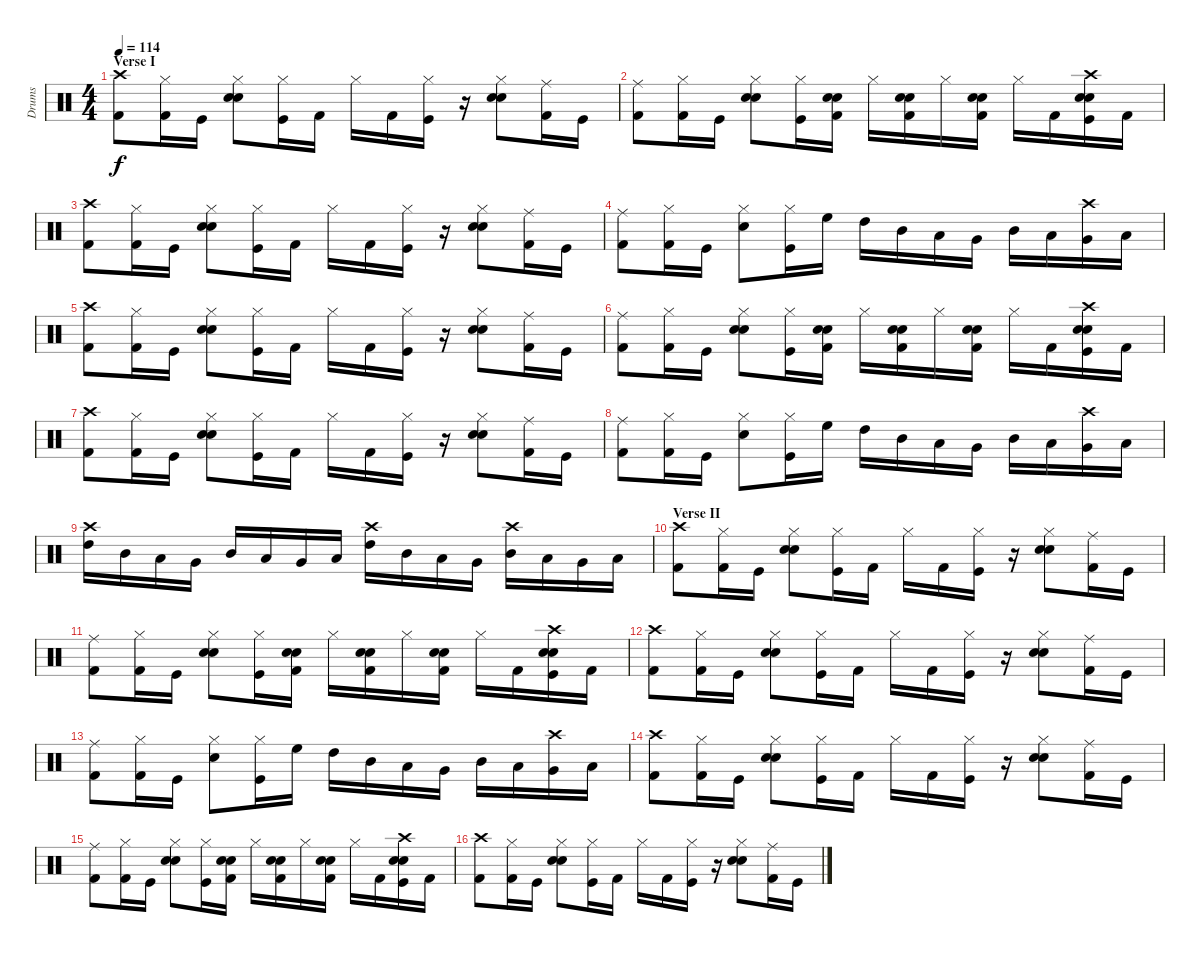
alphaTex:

\track ("Drums" "Drums") {instrument percussion}
\staff {score}
\articulation defaults
\ts (4 4)
\section ("" "Verse I")
\tempo 114
\clef neutral
\ks c
("Crash high (hit)" "Kick (hit) 2").8{dy f} ("Hi-Hat (closed)" "Kick (hit) 2").16 "Kick (hit)".16 ("Hi-Hat (closed)" "Electric Snare (hit)" "Snare (hit) 2").8 ("Hi-Hat (closed)" "Kick (hit)").16 "Kick (hit) 2".16 "Hi-Hat (closed)".16 "Kick (hit) 2".16 ("Hi-Hat (closed)" "Kick (hit)").16 r.16 ("Hi-Hat (closed)" "Electric Snare (hit)" "Snare (hit) 2").8 ("Ride (middle)" "Kick (hit) 2").16 "Kick (hit)".16 |
("Ride (middle)" "Kick (hit) 2").8 ("Hi-Hat (closed)" "Kick (hit) 2").16 "Kick (hit)".16 ("Hi-Hat (closed)" "Electric Snare (hit)" "Snare (hit) 2").8 ("Hi-Hat (closed)" "Kick (hit)").16 ("Electric Snare (hit)" "Snare (hit) 2" "Kick (hit) 2").16 "Hi-Hat (closed)".16 ("Electric Snare (hit)" "Snare (hit) 2" "Kick (hit) 2").16 "Hi-Hat (closed)".16 ("Electric Snare (hit)" "Snare (hit) 2" "Kick (hit) 2").16 "Hi-Hat (closed)".16 "Kick (hit) 2".16 ("Crash high (hit)" "Electric Snare (hit)" "Snare (hit) 2" "Kick (hit)").16 "Kick (hit) 2".16 |
("Crash high (hit)" "Kick (hit) 2").8 ("Hi-Hat (closed)" "Kick (hit) 2").16 "Kick (hit)".16 ("Hi-Hat (closed)" "Electric Snare (hit)" "Snare (hit) 2").8 ("Hi-Hat (closed)" "Kick (hit)").16 "Kick (hit) 2".16 "Hi-Hat (closed)".16 "Kick (hit) 2".16 ("Hi-Hat (closed)" "Kick (hit)").16 r.16 ("Hi-Hat (closed)" "Electric Snare (hit)" "Snare (hit) 2").8 ("Ride (middle)" "Kick (hit) 2").16 "Kick (hit)".16 |
("Ride (middle)" "Kick (hit) 2").8 ("Hi-Hat (closed)" "Kick (hit) 2").16 "Kick (hit)".16 ("Hi-Hat (closed)" "Snare (hit) 2").8 ("Hi-Hat (closed)" "Kick (hit)").16 "High Floor Tom (hit)".16 "High Tom (hit)".16 "Mid Tom (hit)".16 "Low Tom (hit)".16 "Very Low Tom (hit)".16 "Mid Tom (hit)".16 "Low Tom (hit)".16 ("Crash high (hit)" "Very Low Tom (hit)").16 "Low Floor Tom (hit)".16 |
("Crash high (hit)" "Kick (hit) 2").8 ("Hi-Hat (closed)" "Kick (hit) 2").16 "Kick (hit)".16 ("Hi-Hat (closed)" "Electric Snare (hit)" "Snare (hit) 2").8 ("Hi-Hat (closed)" "Kick (hit)").16 "Kick (hit) 2".16 "Hi-Hat (closed)".16 "Kick (hit) 2".16 ("Hi-Hat (closed)" "Kick (hit)").16 r.16 ("Hi-Hat (closed)" "Electric Snare (hit)" "Snare (hit) 2").8 ("Ride (middle)" "Kick (hit) 2").16 "Kick (hit)".16 |
("Ride (middle)" "Kick (hit) 2").8 ("Hi-Hat (closed)" "Kick (hit) 2").16 "Kick (hit)".16 ("Hi-Hat (closed)" "Electric Snare (hit)" "Snare (hit) 2").8 ("Hi-Hat (closed)" "Kick (hit)").16 ("Electric Snare (hit)" "Snare (hit) 2" "Kick (hit) 2").16 "Hi-Hat (closed)".16 ("Electric Snare (hit)" "Snare (hit) 2" "Kick (hit) 2").16 "Hi-Hat (closed)".16 ("Electric Snare (hit)" "Snare (hit) 2" "Kick (hit) 2").16 "Hi-Hat (closed)".16 "Kick (hit) 2".16 ("Crash high (hit)" "Electric Snare (hit)" "Snare (hit) 2" "Kick (hit)").16 "Kick (hit) 2".16 |
("Crash high (hit)" "Kick (hit) 2").8 ("Hi-Hat (closed)" "Kick (hit) 2").16 "Kick (hit)".16 ("Hi-Hat (closed)" "Electric Snare (hit)" "Snare (hit) 2").8 ("Hi-Hat (closed)" "Kick (hit)").16 "Kick (hit) 2".16 "Hi-Hat (closed)".16 "Kick (hit) 2".16 ("Hi-Hat (closed)" "Kick (hit)").16 r.16 ("Hi-Hat (closed)" "Electric Snare (hit)" "Snare (hit) 2").8 ("Ride (middle)" "Kick (hit) 2").16 "Kick (hit)".16 |
("Ride (middle)" "Kick (hit) 2").8 ("Hi-Hat (closed)" "Kick (hit) 2").16 "Kick (hit)".16 ("Hi-Hat (closed)" "Snare (hit) 2").8 ("Hi-Hat (closed)" "Kick (hit)").16 "High Floor Tom (hit)".16 "High Tom (hit)".16 "Mid Tom (hit)".16 "Low Tom (hit)".16 "Very Low Tom (hit)".16 "Mid Tom (hit)".16 "Low Tom (hit)".16 ("Crash high (hit)" "Very Low Tom (hit)").16 "Low Floor Tom (hit)".16 |
("Crash high (hit)" "High Tom (hit)").16 "Mid Tom (hit)".16 "Low Tom (hit)".16 "Very Low Tom (hit)".16 "Mid Tom (hit)".16 "Low Tom (hit)".16 "Very Low Tom (hit)".16 "Low Floor Tom (hit)".16 ("Crash high (hit)" "High Tom (hit)").16 "Mid Tom (hit)".16 "Low Tom (hit)".16 "Very Low Tom (hit)".16 ("Crash high (hit)" "Mid Tom (hit)").16 "Low Tom (hit)".16 "Very Low Tom (hit)".16 "Low Floor Tom (hit)".16 |
\section ("" "Verse II")
("Crash high (hit)" "Kick (hit) 2").8 ("Hi-Hat (closed)" "Kick (hit) 2").16 "Kick (hit)".16 ("Hi-Hat (closed)" "Electric Snare (hit)" "Snare (hit) 2").8 ("Hi-Hat (closed)" "Kick (hit)").16 "Kick (hit) 2".16 "Hi-Hat (closed)".16 "Kick (hit) 2".16 ("Hi-Hat (closed)" "Kick (hit)").16 r.16 ("Hi-Hat (closed)" "Electric Snare (hit)" "Snare (hit) 2").8 ("Ride (middle)" "Kick (hit) 2").16 "Kick (hit)".16 |
("Ride (middle)" "Kick (hit) 2").8 ("Hi-Hat (closed)" "Kick (hit) 2").16 "Kick (hit)".16 ("Hi-Hat (closed)" "Electric Snare (hit)" "Snare (hit) 2").8 ("Hi-Hat (closed)" "Kick (hit)").16 ("Electric Snare (hit)" "Snare (hit) 2" "Kick (hit) 2").16 "Hi-Hat (closed)".16 ("Electric Snare (hit)" "Snare (hit) 2" "Kick (hit) 2").16 "Hi-Hat (closed)".16 ("Electric Snare (hit)" "Snare (hit) 2" "Kick (hit) 2").16 "Hi-Hat (closed)".16 "Kick (hit) 2".16 ("Crash high (hit)" "Electric Snare (hit)" "Snare (hit) 2" "Kick (hit)").16 "Kick (hit) 2".16 |
("Crash high (hit)" "Kick (hit) 2").8 ("Hi-Hat (closed)" "Kick (hit) 2").16 "Kick (hit)".16 ("Hi-Hat (closed)" "Electric Snare (hit)" "Snare (hit) 2").8 ("Hi-Hat (closed)" "Kick (hit)").16 "Kick (hit) 2".16 "Hi-Hat (closed)".16 "Kick (hit) 2".16 ("Hi-Hat (closed)" "Kick (hit)").16 r.16 ("Hi-Hat (closed)" "Electric Snare (hit)" "Snare (hit) 2").8 ("Ride (middle)" "Kick (hit) 2").16 "Kick (hit)".16 |
("Ride (middle)" "Kick (hit) 2").8 ("Hi-Hat (closed)" "Kick (hit) 2").16 "Kick (hit)".16 ("Hi-Hat (closed)" "Snare (hit) 2").8 ("Hi-Hat (closed)" "Kick (hit)").16 "High Floor Tom (hit)".16 "High Tom (hit)".16 "Mid Tom (hit)".16 "Low Tom (hit)".16 "Very Low Tom (hit)".16 "Mid Tom (hit)".16 "Low Tom (hit)".16 ("Crash high (hit)" "Very Low Tom (hit)").16 "Low Floor Tom (hit)".16 |
("Crash high (hit)" "Kick (hit) 2").8 ("Hi-Hat (closed)" "Kick (hit) 2").16 "Kick (hit)".16 ("Hi-Hat (closed)" "Electric Snare (hit)" "Snare (hit) 2").8 ("Hi-Hat (closed)" "Kick (hit)").16 "Kick (hit) 2".16 "Hi-Hat (closed)".16 "Kick (hit) 2".16 ("Hi-Hat (closed)" "Kick (hit)").16 r.16 ("Hi-Hat (closed)" "Electric Snare (hit)" "Snare (hit) 2").8 ("Ride (middle)" "Kick (hit) 2").16 "Kick (hit)".16 |
("Ride (middle)" "Kick (hit) 2").8 ("Hi-Hat (closed)" "Kick (hit) 2").16 "Kick (hit)".16 ("Hi-Hat (closed)" "Electric Snare (hit)" "Snare (hit) 2").8 ("Hi-Hat (closed)" "Kick (hit)").16 ("Electric Snare (hit)" "Snare (hit) 2" "Kick (hit) 2").16 "Hi-Hat (closed)".16 ("Electric Snare (hit)" "Snare (hit) 2" "Kick (hit) 2").16 "Hi-Hat (closed)".16 ("Electric Snare (hit)" "Snare (hit) 2" "Kick (hit) 2").16 "Hi-Hat (closed)".16 "Kick (hit) 2".16 ("Crash high (hit)" "Electric Snare (hit)" "Snare (hit) 2" "Kick (hit)").16 "Kick (hit) 2".16 |
("Crash high (hit)" "Kick (hit) 2").8 ("Hi-Hat (closed)" "Kick (hit) 2").16 "Kick (hit)".16 ("Hi-Hat (closed)" "Electric Snare (hit)" "Snare (hit) 2").8 ("Hi-Hat (closed)" "Kick (hit)").16 "Kick (hit) 2".16 "Hi-Hat (closed)".16 "Kick (hit) 2".16 ("Hi-Hat (closed)" "Kick (hit)").16 r.16 ("Hi-Hat (closed)" "Electric Snare (hit)" "Snare (hit) 2").8 ("Ride (middle)" "Kick (hit) 2").16 "Kick (hit)".16
